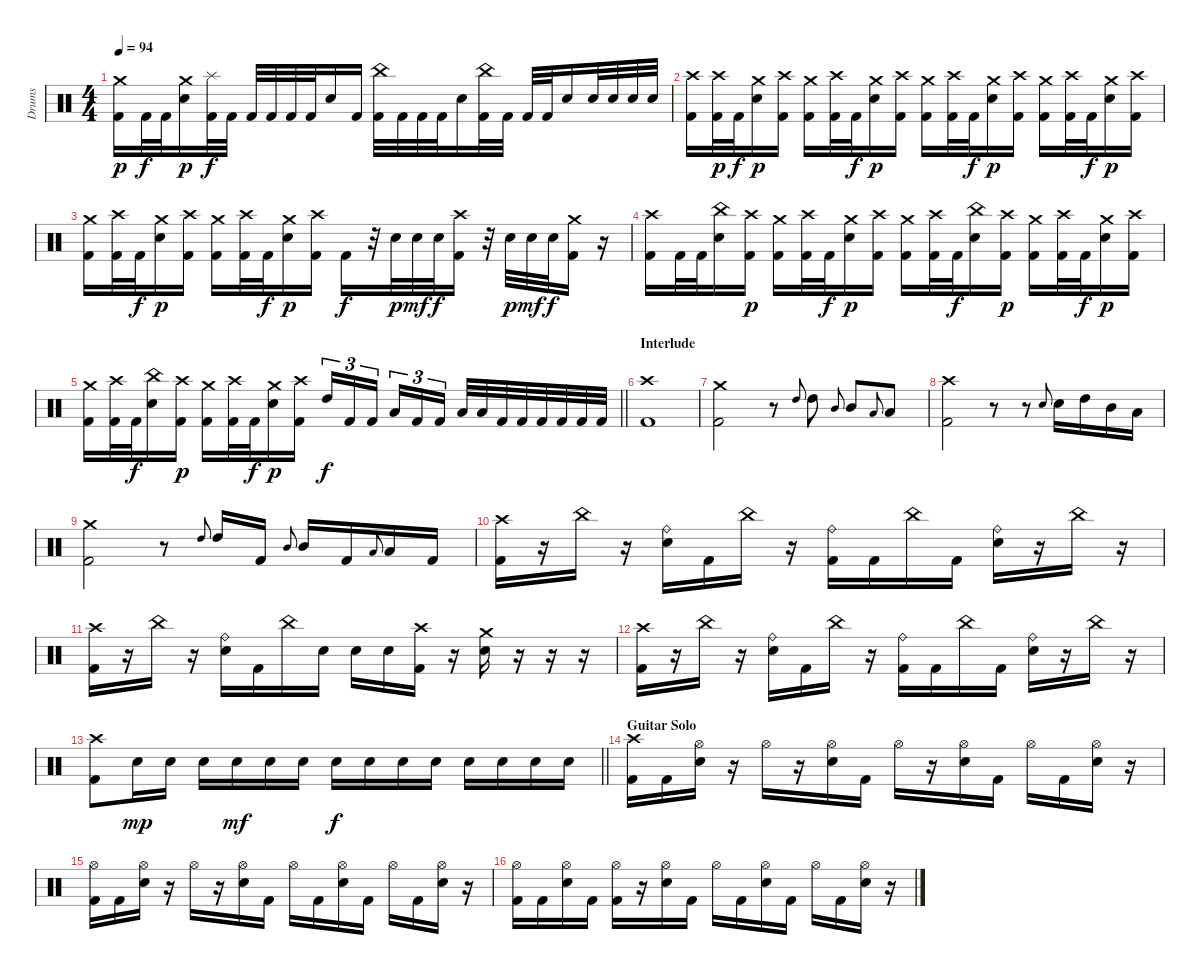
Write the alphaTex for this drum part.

\track ("Drums" "Drums") {instrument percussion}
\staff {score}
\articulation defaults
\ts (4 4)
\tempo 94
\clef neutral
\ks c
("Kick (hit) 2" "Crash medium (hit)").16{dy p} "Kick (hit) 2".32{dy f} "Kick (hit) 2".32 ("Snare (hit) 2" "Crash medium (hit)").16{dy p} ("Kick (hit) 2" "Splash (hit)").32{dy f} "Kick (hit) 2".32 "Kick (hit) 2".32 "Kick (hit) 2".32 "Kick (hit) 2".32 "Kick (hit) 2".32 "Snare (hit) 2".16 "Kick (hit) 2".16 ("Kick (hit) 2" "China (hit)").32 "Kick (hit) 2".32 "Kick (hit) 2".32 "Kick (hit) 2".32 "Snare (hit) 2".16 ("Kick (hit) 2" "China (hit)").32 "Kick (hit) 2".32 "Kick (hit) 2".32 "Kick (hit) 2".32 "Snare (hit) 2".16 "Snare (hit) 2".32 "Snare (hit) 2".32 "Snare (hit) 2".32 "Snare (hit) 2".32 |
("Kick (hit) 2" "Crash high (hit)").16 ("Kick (hit) 2" "Crash high (hit)").32{dy p} "Kick (hit) 2".32{dy f} ("Snare (hit) 2" "Crash medium (hit)").16{dy p} ("Kick (hit) 2" "Crash high (hit)").16 ("Kick (hit) 2" "Crash medium (hit)").16 ("Kick (hit) 2" "Crash high (hit)").32 "Kick (hit) 2".32{dy f} ("Snare (hit) 2" "Crash medium (hit)").16{dy p} ("Kick (hit) 2" "Crash high (hit)").16 ("Kick (hit) 2" "Crash medium (hit)").16 ("Kick (hit) 2" "Crash high (hit)").32 "Kick (hit) 2".32{dy f} ("Snare (hit) 2" "Crash medium (hit)").16{dy p} ("Kick (hit) 2" "Crash high (hit)").16 ("Kick (hit) 2" "Crash medium (hit)").16 ("Kick (hit) 2" "Crash high (hit)").32 "Kick (hit) 2".32{dy f} ("Snare (hit) 2" "Crash medium (hit)").16{dy p} ("Kick (hit) 2" "Crash high (hit)").16 |
("Kick (hit) 2" "Crash medium (hit)").16 ("Kick (hit) 2" "Crash high (hit)").32 "Kick (hit) 2".32{dy f} ("Snare (hit) 2" "Crash medium (hit)").16{dy p} ("Kick (hit) 2" "Crash high (hit)").16 ("Kick (hit) 2" "Crash medium (hit)").16 ("Kick (hit) 2" "Crash high (hit)").32 "Kick (hit) 2".32{dy f} ("Snare (hit) 2" "Crash medium (hit)").16{dy p} ("Kick (hit) 2" "Crash high (hit)").16 "Kick (hit) 2".16{dy f} r.32 "Snare (hit) 2".32{dy p} "Snare (hit) 2".32{dy mf} "Snare (hit) 2".32{dy f} ("Kick (hit) 2" "Crash high (hit)").16 r.32 "Snare (hit) 2".32{dy p} "Snare (hit) 2".32{dy mf} "Snare (hit) 2".32{dy f} ("Kick (hit) 2" "Crash medium (hit)").16 r.16 |
("Kick (hit) 2" "Crash high (hit)").16 "Kick (hit) 2".32 "Kick (hit) 2".32 ("Snare (hit) 2" "China (hit)").16 ("Kick (hit) 2" "Crash high (hit)").16{dy p} ("Kick (hit) 2" "Crash medium (hit)").16 ("Kick (hit) 2" "Crash high (hit)").32 "Kick (hit) 2".32{dy f} ("Snare (hit) 2" "Crash medium (hit)").16{dy p} ("Kick (hit) 2" "Crash high (hit)").16 ("Kick (hit) 2" "Crash medium (hit)").16 ("Kick (hit) 2" "Crash high (hit)").32 "Kick (hit) 2".32{dy f} ("Snare (hit) 2" "China (hit)").16 ("Kick (hit) 2" "Crash high (hit)").16{dy p} ("Kick (hit) 2" "Crash medium (hit)").16 ("Kick (hit) 2" "Crash high (hit)").32 "Kick (hit) 2".32{dy f} ("Snare (hit) 2" "Crash medium (hit)").16{dy p} ("Kick (hit) 2" "Crash high (hit)").16 |
\barLineRight lightlight
("Kick (hit) 2" "Crash medium (hit)").16 ("Kick (hit) 2" "Crash high (hit)").32 "Kick (hit) 2".32{dy f} ("Snare (hit) 2" "China (hit)").16 ("Kick (hit) 2" "Crash high (hit)").16{dy p} ("Kick (hit) 2" "Crash medium (hit)").16 ("Kick (hit) 2" "Crash high (hit)").32 "Kick (hit) 2".32{dy f} ("Snare (hit) 2" "Crash medium (hit)").16{dy p} ("Kick (hit) 2" "Crash high (hit)").16 "High Tom (hit)".16{tu (3 2) dy f} "Kick (hit) 2".16{tu (3 2)} "Kick (hit) 2".16{tu (3 2) beam splitsecondary} "Low Tom (hit)".16{tu (3 2)} "Kick (hit) 2".16{tu (3 2)} "Kick (hit) 2".16{tu (3 2)} "Low Tom (hit)".32 "Low Tom (hit)".32 "Kick (hit) 2".32 "Kick (hit) 2".32 "Kick (hit) 2".32 "Kick (hit) 2".32 "Kick (hit) 2".32 "Kick (hit) 2".32 |
\section ("" "Interlude")
("Crash high (hit)" "Kick (hit) 2").1 |
("Crash medium (hit)" "Kick (hit) 2").2 r.8 "High Tom (hit)".8{gr onbeat} "High Tom (hit)".8 "Mid Tom (hit)".8{gr onbeat} "Mid Tom (hit)".8 "Low Tom (hit)".8{gr onbeat} "Low Tom (hit)".8 |
("Crash high (hit)" "Kick (hit) 2").2 r.8 r.8 "Snare (hit) 2".8{gr onbeat} "Snare (hit) 2".16 "High Tom (hit)".16 "Mid Tom (hit)".16 "Low Tom (hit)".16 |
("Crash medium (hit)" "Kick (hit) 2").2 r.8 "High Tom (hit)".8{gr onbeat} "High Tom (hit)".16 "Kick (hit) 2".16 "Mid Tom (hit)".8{gr onbeat} "Mid Tom (hit)".16 "Kick (hit) 2".16 "Low Tom (hit)".8{gr onbeat} "Low Tom (hit)".16 "Kick (hit) 2".16 |
("Kick (hit) 2" "Crash high (hit)").16 r.16 "China (hit)".16 r.16 ("Snare (hit) 2" "Ride (bell)").16 "Kick (hit) 2".16 "China (hit)".16 r.16 ("Kick (hit) 2" "Ride (bell)").16 "Kick (hit) 2".16 "China (hit)".16 "Kick (hit) 2".16 ("Snare (hit) 2" "Ride (bell)").16 r.16 "China (hit)".16 r.16 |
("Kick (hit) 2" "Crash high (hit)").16 r.16 "China (hit)".16 r.16 ("Snare (hit) 2" "Ride (bell)").16 "Kick (hit) 2".16 "China (hit)".16 "Snare (hit) 2".16 "Snare (hit) 2".16 "Snare (hit) 2".16 ("Kick (hit) 2" "Crash high (hit)").16 r.16 ("Snare (hit) 2" "Crash medium (hit)").16 r.16 r.16 r.16 |
("Kick (hit) 2" "Crash high (hit)").16 r.16 "China (hit)".16 r.16 ("Snare (hit) 2" "Ride (bell)").16 "Kick (hit) 2".16 "China (hit)".16 r.16 ("Kick (hit) 2" "Ride (bell)").16 "Kick (hit) 2".16 "China (hit)".16 "Kick (hit) 2".16 ("Snare (hit) 2" "Ride (bell)").16 r.16 "China (hit)".16 r.16 |
\barLineRight lightlight
("Kick (hit) 2" "Crash high (hit)").8 "Snare (hit) 2".16{dy mp} "Snare (hit) 2".16 "Snare (hit) 2".16 "Snare (hit) 2".16{dy mf} "Snare (hit) 2".16 "Snare (hit) 2".16 "Snare (hit) 2".16{dy f} "Snare (hit) 2".16 "Snare (hit) 2".16 "Snare (hit) 2".16 "Snare (hit) 2".16 "Snare (hit) 2".16 "Snare (hit) 2".16 "Snare (hit) 2".16 |
\section ("" "Guitar Solo")
("Kick (hit) 2" "Crash high (hit)").16 "Kick (hit) 2".16 ("Hi-Hat (open)" "Snare (hit) 2").16 r.16 "Hi-Hat (open)".16 r.16 ("Hi-Hat (open)" "Snare (hit) 2").16 "Kick (hit) 2".16 "Hi-Hat (open)".16 r.16 ("Hi-Hat (open)" "Snare (hit) 2").16 "Kick (hit) 2".16 "Hi-Hat (open)".16 "Kick (hit) 2".16 ("Hi-Hat (open)" "Snare (hit) 2").16 r.16 |
("Kick (hit) 2" "Hi-Hat (open)").16 "Kick (hit) 2".16 ("Hi-Hat (open)" "Snare (hit) 2").16 r.16 "Hi-Hat (open)".16 r.16 ("Hi-Hat (open)" "Snare (hit) 2").16 "Kick (hit) 2".16 "Hi-Hat (open)".16 "Kick (hit) 2".16 ("Hi-Hat (open)" "Snare (hit) 2").16 "Kick (hit) 2".16 "Hi-Hat (open)".16 "Kick (hit) 2".16 ("Hi-Hat (open)" "Snare (hit) 2").16 r.16 |
("Kick (hit) 2" "Hi-Hat (open)").16 "Kick (hit) 2".16 ("Hi-Hat (open)" "Snare (hit) 2").16 "Kick (hit) 2".16 ("Hi-Hat (open)" "Kick (hit) 2").16 r.16 ("Hi-Hat (open)" "Snare (hit) 2").16 "Kick (hit) 2".16 "Hi-Hat (open)".16 "Kick (hit) 2".16 ("Hi-Hat (open)" "Snare (hit) 2").16 "Kick (hit) 2".16 "Hi-Hat (open)".16 "Kick (hit) 2".16 ("Hi-Hat (open)" "Snare (hit) 2").16 r.16
